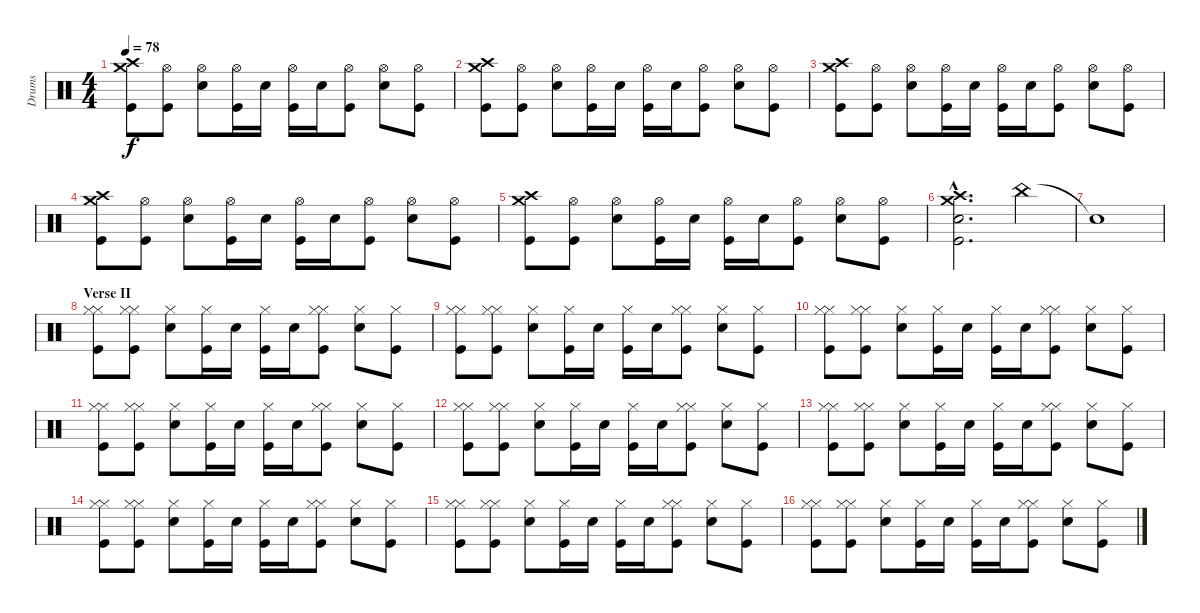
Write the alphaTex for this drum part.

\track ("Drums" "Drums") {instrument percussion}
\staff {score}
\articulation defaults
\ts (4 4)
\tempo 78
\clef neutral
\ks c
("Crash high (hit)" "Crash medium (hit)" "Kick (hit)").8{dy f} ("Hi-Hat (open)" "Kick (hit)").8 ("Electric Snare (hit)" "Hi-Hat (open)").8 ("Hi-Hat (open)" "Kick (hit)").16 "Electric Snare (hit)".16 ("Hi-Hat (open)" "Kick (hit)").16 "Electric Snare (hit)".16 ("Hi-Hat (open)" "Kick (hit)").8 ("Electric Snare (hit)" "Hi-Hat (open)").8 ("Hi-Hat (open)" "Kick (hit)").8 |
("Crash high (hit)" "Crash medium (hit)" "Kick (hit)").8 ("Hi-Hat (open)" "Kick (hit)").8 ("Electric Snare (hit)" "Hi-Hat (open)").8 ("Hi-Hat (open)" "Kick (hit)").16 "Electric Snare (hit)".16 ("Hi-Hat (open)" "Kick (hit)").16 "Electric Snare (hit)".16 ("Hi-Hat (open)" "Kick (hit)").8 ("Electric Snare (hit)" "Hi-Hat (open)").8 ("Hi-Hat (open)" "Kick (hit)").8 |
("Crash high (hit)" "Crash medium (hit)" "Kick (hit)").8 ("Hi-Hat (open)" "Kick (hit)").8 ("Electric Snare (hit)" "Hi-Hat (open)").8 ("Hi-Hat (open)" "Kick (hit)").16 "Electric Snare (hit)".16 ("Hi-Hat (open)" "Kick (hit)").16 "Electric Snare (hit)".16 ("Hi-Hat (open)" "Kick (hit)").8 ("Electric Snare (hit)" "Hi-Hat (open)").8 ("Hi-Hat (open)" "Kick (hit)").8 |
("Crash high (hit)" "Crash medium (hit)" "Kick (hit)").8 ("Hi-Hat (open)" "Kick (hit)").8 ("Electric Snare (hit)" "Hi-Hat (open)").8 ("Hi-Hat (open)" "Kick (hit)").16 "Electric Snare (hit)".16 ("Hi-Hat (open)" "Kick (hit)").16 "Electric Snare (hit)".16 ("Hi-Hat (open)" "Kick (hit)").8 ("Electric Snare (hit)" "Hi-Hat (open)").8 ("Hi-Hat (open)" "Kick (hit)").8 |
("Crash high (hit)" "Crash medium (hit)" "Kick (hit)").8 ("Hi-Hat (open)" "Kick (hit)").8 ("Electric Snare (hit)" "Hi-Hat (open)").8 ("Hi-Hat (open)" "Kick (hit)").16 "Electric Snare (hit)".16 ("Hi-Hat (open)" "Kick (hit)").16 "Electric Snare (hit)".16 ("Hi-Hat (open)" "Kick (hit)").8 ("Electric Snare (hit)" "Hi-Hat (open)").8 ("Hi-Hat (open)" "Kick (hit)").8 |
("Crash high (hit)"{hac} "Crash medium (hit)"{hac} "Electric Snare (hit)"{hac} "Kick (hit)"{hac}).2{d} "China (hit)".4 |
"Snare (hit)"{t}.1 |
\section ("" "Verse II")
("Hi-Hat (closed)" "Hi-Hat (closed)" "Kick (hit)").8 ("Hi-Hat (closed)" "Hi-Hat (closed)" "Kick (hit)").8 ("Snare (hit) 2" "Hi-Hat (closed)").8 ("Hi-Hat (closed)" "Kick (hit)").16 "Snare (hit) 2".16 ("Hi-Hat (closed)" "Kick (hit)").16 "Snare (hit) 2".16 ("Hi-Hat (closed)" "Hi-Hat (closed)" "Kick (hit)").8 ("Snare (hit) 2" "Hi-Hat (closed)").8 ("Hi-Hat (closed)" "Kick (hit)").8 |
("Hi-Hat (closed)" "Hi-Hat (closed)" "Kick (hit)").8 ("Hi-Hat (closed)" "Hi-Hat (closed)" "Kick (hit)").8 ("Snare (hit) 2" "Hi-Hat (closed)").8 ("Hi-Hat (closed)" "Kick (hit)").16 "Snare (hit) 2".16 ("Hi-Hat (closed)" "Kick (hit)").16 "Snare (hit) 2".16 ("Hi-Hat (closed)" "Hi-Hat (closed)" "Kick (hit)").8 ("Snare (hit) 2" "Hi-Hat (closed)").8 ("Hi-Hat (closed)" "Kick (hit)").8 |
("Hi-Hat (closed)" "Hi-Hat (closed)" "Kick (hit)").8 ("Hi-Hat (closed)" "Hi-Hat (closed)" "Kick (hit)").8 ("Snare (hit) 2" "Hi-Hat (closed)").8 ("Hi-Hat (closed)" "Kick (hit)").16 "Snare (hit) 2".16 ("Hi-Hat (closed)" "Kick (hit)").16 "Snare (hit) 2".16 ("Hi-Hat (closed)" "Hi-Hat (closed)" "Kick (hit)").8 ("Snare (hit) 2" "Hi-Hat (closed)").8 ("Hi-Hat (closed)" "Kick (hit)").8 |
("Hi-Hat (closed)" "Hi-Hat (closed)" "Kick (hit)").8 ("Hi-Hat (closed)" "Hi-Hat (closed)" "Kick (hit)").8 ("Snare (hit) 2" "Hi-Hat (closed)").8 ("Hi-Hat (closed)" "Kick (hit)").16 "Snare (hit) 2".16 ("Hi-Hat (closed)" "Kick (hit)").16 "Snare (hit) 2".16 ("Hi-Hat (closed)" "Hi-Hat (closed)" "Kick (hit)").8 ("Snare (hit) 2" "Hi-Hat (closed)").8 ("Hi-Hat (closed)" "Kick (hit)").8 |
("Hi-Hat (closed)" "Hi-Hat (closed)" "Kick (hit)").8 ("Hi-Hat (closed)" "Hi-Hat (closed)" "Kick (hit)").8 ("Snare (hit) 2" "Hi-Hat (closed)").8 ("Hi-Hat (closed)" "Kick (hit)").16 "Snare (hit) 2".16 ("Hi-Hat (closed)" "Kick (hit)").16 "Snare (hit) 2".16 ("Hi-Hat (closed)" "Hi-Hat (closed)" "Kick (hit)").8 ("Snare (hit) 2" "Hi-Hat (closed)").8 ("Hi-Hat (closed)" "Kick (hit)").8 |
("Hi-Hat (closed)" "Hi-Hat (closed)" "Kick (hit)").8 ("Hi-Hat (closed)" "Hi-Hat (closed)" "Kick (hit)").8 ("Snare (hit) 2" "Hi-Hat (closed)").8 ("Hi-Hat (closed)" "Kick (hit)").16 "Snare (hit) 2".16 ("Hi-Hat (closed)" "Kick (hit)").16 "Snare (hit) 2".16 ("Hi-Hat (closed)" "Hi-Hat (closed)" "Kick (hit)").8 ("Snare (hit) 2" "Hi-Hat (closed)").8 ("Hi-Hat (closed)" "Kick (hit)").8 |
("Hi-Hat (closed)" "Hi-Hat (closed)" "Kick (hit)").8 ("Hi-Hat (closed)" "Hi-Hat (closed)" "Kick (hit)").8 ("Snare (hit) 2" "Hi-Hat (closed)").8 ("Hi-Hat (closed)" "Kick (hit)").16 "Snare (hit) 2".16 ("Hi-Hat (closed)" "Kick (hit)").16 "Snare (hit) 2".16 ("Hi-Hat (closed)" "Hi-Hat (closed)" "Kick (hit)").8 ("Snare (hit) 2" "Hi-Hat (closed)").8 ("Hi-Hat (closed)" "Kick (hit)").8 |
("Hi-Hat (closed)" "Hi-Hat (closed)" "Kick (hit)").8 ("Hi-Hat (closed)" "Hi-Hat (closed)" "Kick (hit)").8 ("Snare (hit) 2" "Hi-Hat (closed)").8 ("Hi-Hat (closed)" "Kick (hit)").16 "Snare (hit) 2".16 ("Hi-Hat (closed)" "Kick (hit)").16 "Snare (hit) 2".16 ("Hi-Hat (closed)" "Hi-Hat (closed)" "Kick (hit)").8 ("Snare (hit) 2" "Hi-Hat (closed)").8 ("Hi-Hat (closed)" "Kick (hit)").8 |
("Hi-Hat (closed)" "Hi-Hat (closed)" "Kick (hit)").8 ("Hi-Hat (closed)" "Hi-Hat (closed)" "Kick (hit)").8 ("Snare (hit) 2" "Hi-Hat (closed)").8 ("Hi-Hat (closed)" "Kick (hit)").16 "Snare (hit) 2".16 ("Hi-Hat (closed)" "Kick (hit)").16 "Snare (hit) 2".16 ("Hi-Hat (closed)" "Hi-Hat (closed)" "Kick (hit)").8 ("Snare (hit) 2" "Hi-Hat (closed)").8 ("Hi-Hat (closed)" "Kick (hit)").8
